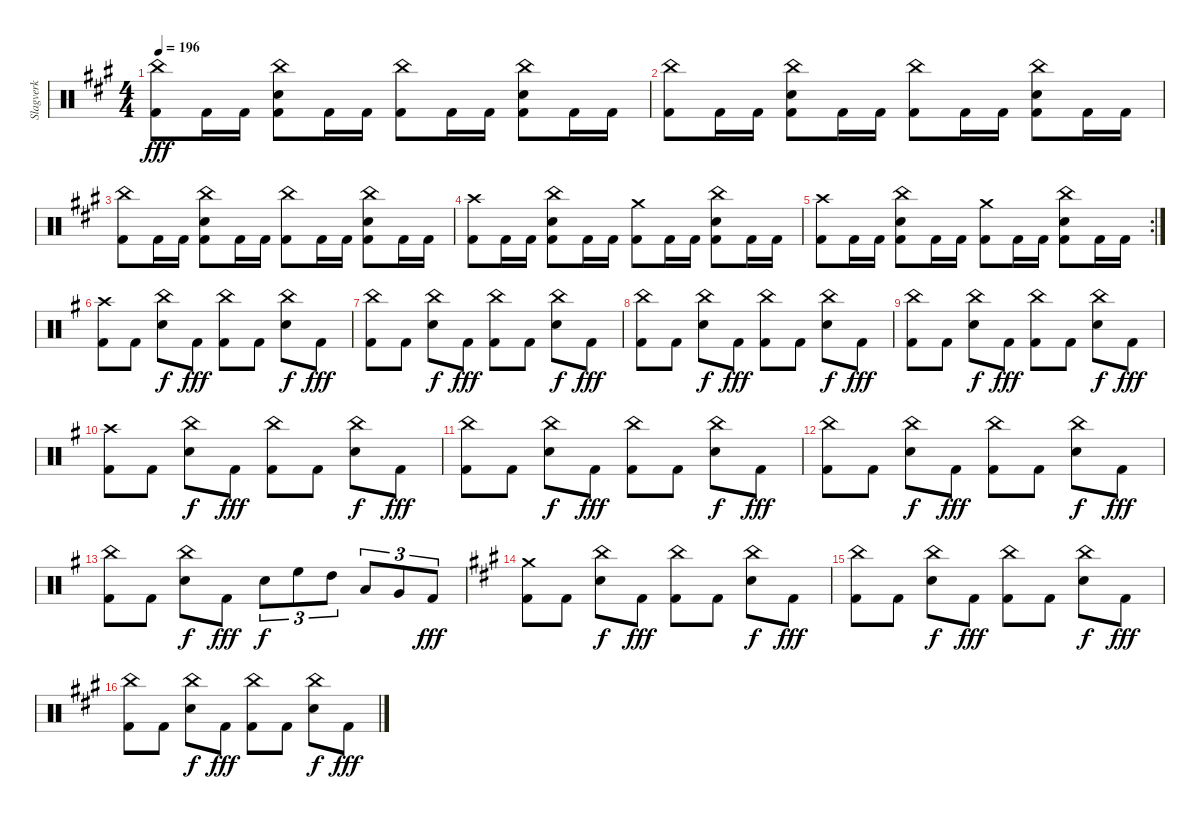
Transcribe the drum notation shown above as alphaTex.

\track ("Slagverk" "Slagverk") {instrument percussion}
\staff {score}
\articulation defaults
\ts (4 4)
\tempo 196
\clef neutral
\ks a
("China (hit)" "Kick (hit) 2").8{dy fff} "Kick (hit) 2".16 "Kick (hit) 2".16 ("China (hit)" "Snare (hit) 2" "Kick (hit) 2").8 "Kick (hit) 2".16 "Kick (hit) 2".16 ("China (hit)" "Kick (hit) 2").8 "Kick (hit) 2".16 "Kick (hit) 2".16 ("China (hit)" "Snare (hit) 2" "Kick (hit) 2").8 "Kick (hit) 2".16 "Kick (hit) 2".16 |
("China (hit)" "Kick (hit) 2").8 "Kick (hit) 2".16 "Kick (hit) 2".16 ("China (hit)" "Snare (hit) 2" "Kick (hit) 2").8 "Kick (hit) 2".16 "Kick (hit) 2".16 ("China (hit)" "Kick (hit) 2").8 "Kick (hit) 2".16 "Kick (hit) 2".16 ("China (hit)" "Snare (hit) 2" "Kick (hit) 2").8 "Kick (hit) 2".16 "Kick (hit) 2".16 |
("China (hit)" "Kick (hit) 2").8 "Kick (hit) 2".16 "Kick (hit) 2".16 ("China (hit)" "Snare (hit) 2" "Kick (hit) 2").8 "Kick (hit) 2".16 "Kick (hit) 2".16 ("China (hit)" "Kick (hit) 2").8 "Kick (hit) 2".16 "Kick (hit) 2".16 ("China (hit)" "Snare (hit) 2" "Kick (hit) 2").8 "Kick (hit) 2".16 "Kick (hit) 2".16 |
("Crash high (hit)" "Kick (hit) 2").8 "Kick (hit) 2".16 "Kick (hit) 2".16 ("China (hit)" "Snare (hit) 2" "Kick (hit) 2").8 "Kick (hit) 2".16 "Kick (hit) 2".16 ("Crash medium (hit)" "Kick (hit) 2").8 "Kick (hit) 2".16 "Kick (hit) 2".16 ("China (hit)" "Snare (hit) 2" "Kick (hit) 2").8 "Kick (hit) 2".16 "Kick (hit) 2".16 |
\rc 2
("Crash high (hit)" "Kick (hit) 2").8 "Kick (hit) 2".16 "Kick (hit) 2".16 ("China (hit)" "Snare (hit) 2" "Kick (hit) 2").8 "Kick (hit) 2".16 "Kick (hit) 2".16 ("Crash medium (hit)" "Kick (hit) 2").8 "Kick (hit) 2".16 "Kick (hit) 2".16 ("China (hit)" "Snare (hit) 2" "Kick (hit) 2").8 "Kick (hit) 2".16 "Kick (hit) 2".16 |
\ks g
("Crash high (hit)" "Kick (hit) 2").8 "Kick (hit) 2".8 ("China (hit)" "Snare (hit) 2").8{dy f} "Kick (hit) 2".8{dy fff} ("China (hit)" "Kick (hit) 2").8 "Kick (hit) 2".8 ("China (hit)" "Snare (hit) 2").8{dy f} "Kick (hit) 2".8{dy fff} |
("China (hit)" "Kick (hit) 2").8 "Kick (hit) 2".8 ("China (hit)" "Snare (hit) 2").8{dy f} "Kick (hit) 2".8{dy fff} ("China (hit)" "Kick (hit) 2").8 "Kick (hit) 2".8 ("China (hit)" "Snare (hit) 2").8{dy f} "Kick (hit) 2".8{dy fff} |
("China (hit)" "Kick (hit) 2").8 "Kick (hit) 2".8 ("China (hit)" "Snare (hit) 2").8{dy f} "Kick (hit) 2".8{dy fff} ("China (hit)" "Kick (hit) 2").8 "Kick (hit) 2".8 ("China (hit)" "Snare (hit) 2").8{dy f} "Kick (hit) 2".8{dy fff} |
("China (hit)" "Kick (hit) 2").8 "Kick (hit) 2".8 ("China (hit)" "Snare (hit) 2").8{dy f} "Kick (hit) 2".8{dy fff} ("China (hit)" "Kick (hit) 2").8 "Kick (hit) 2".8 ("China (hit)" "Snare (hit) 2").8{dy f} "Kick (hit) 2".8{dy fff} |
("Crash high (hit)" "Kick (hit) 2").8 "Kick (hit) 2".8 ("China (hit)" "Snare (hit) 2").8{dy f} "Kick (hit) 2".8{dy fff} ("China (hit)" "Kick (hit) 2").8 "Kick (hit) 2".8 ("China (hit)" "Snare (hit) 2").8{dy f} "Kick (hit) 2".8{dy fff} |
("China (hit)" "Kick (hit) 2").8 "Kick (hit) 2".8 ("China (hit)" "Snare (hit) 2").8{dy f} "Kick (hit) 2".8{dy fff} ("China (hit)" "Kick (hit) 2").8 "Kick (hit) 2".8 ("China (hit)" "Snare (hit) 2").8{dy f} "Kick (hit) 2".8{dy fff} |
("China (hit)" "Kick (hit) 2").8 "Kick (hit) 2".8 ("China (hit)" "Snare (hit) 2").8{dy f} "Kick (hit) 2".8{dy fff} ("China (hit)" "Kick (hit) 2").8 "Kick (hit) 2".8 ("China (hit)" "Snare (hit) 2").8{dy f} "Kick (hit) 2".8{dy fff} |
("China (hit)" "Kick (hit) 2").8 "Kick (hit) 2".8 ("China (hit)" "Snare (hit) 2").8{dy f} "Kick (hit) 2".8{dy fff} "Snare (hit) 2".8{tu (3 2) dy f} "High Floor Tom (hit)".8{tu (3 2)} "High Tom (hit)".8{tu (3 2)} "Low Tom (hit)".8{tu (3 2)} "Very Low Tom (hit)".8{tu (3 2)} "Kick (hit) 2".8{tu (3 2) dy fff} |
\ks a
("Crash medium (hit)" "Kick (hit) 2").8 "Kick (hit) 2".8 ("China (hit)" "Snare (hit) 2").8{dy f} "Kick (hit) 2".8{dy fff} ("China (hit)" "Kick (hit) 2").8 "Kick (hit) 2".8 ("China (hit)" "Snare (hit) 2").8{dy f} "Kick (hit) 2".8{dy fff} |
("China (hit)" "Kick (hit) 2").8 "Kick (hit) 2".8 ("China (hit)" "Snare (hit) 2").8{dy f} "Kick (hit) 2".8{dy fff} ("China (hit)" "Kick (hit) 2").8 "Kick (hit) 2".8 ("China (hit)" "Snare (hit) 2").8{dy f} "Kick (hit) 2".8{dy fff} |
("China (hit)" "Kick (hit) 2").8 "Kick (hit) 2".8 ("China (hit)" "Snare (hit) 2").8{dy f} "Kick (hit) 2".8{dy fff} ("China (hit)" "Kick (hit) 2").8 "Kick (hit) 2".8 ("China (hit)" "Snare (hit) 2").8{dy f} "Kick (hit) 2".8{dy fff}
